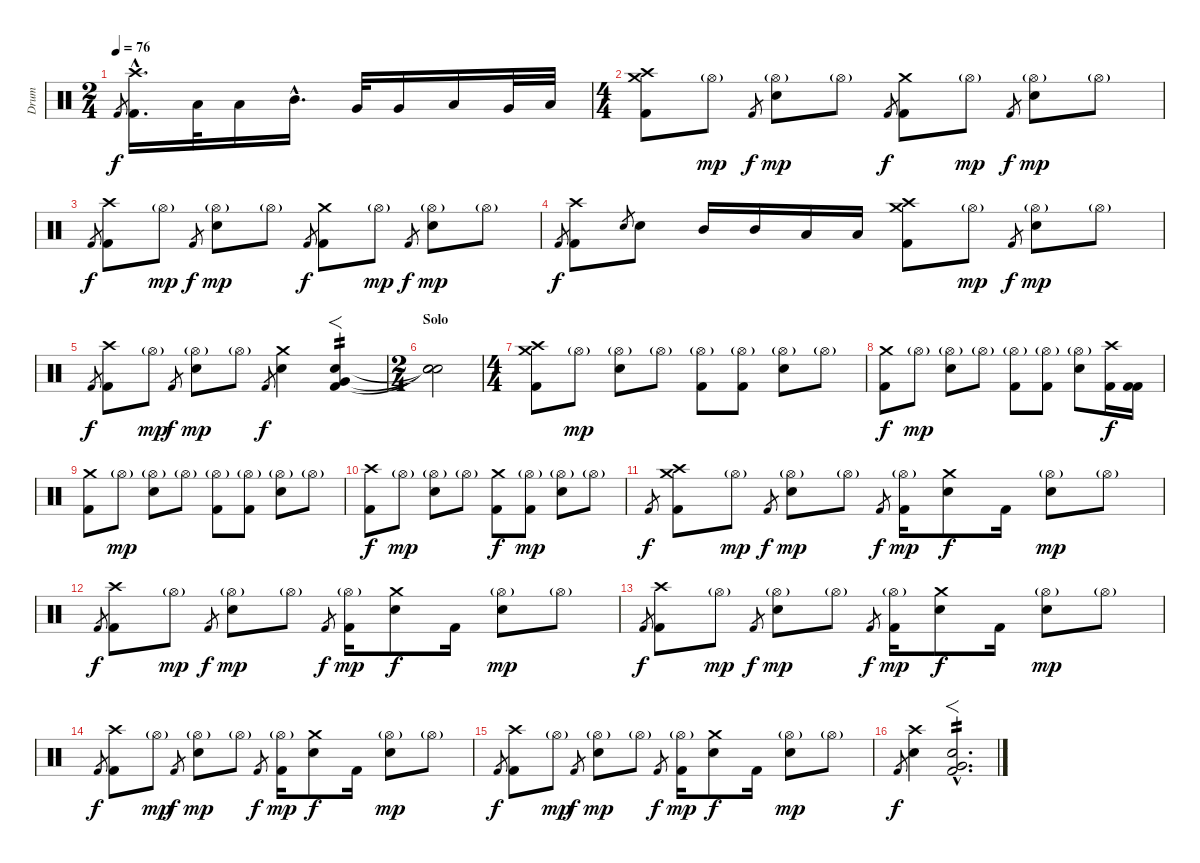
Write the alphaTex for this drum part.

\track ("Drum" "Drum") {instrument percussion}
\staff {score}
\articulation defaults
\ts (2 4)
\tempo 76
\clef neutral
\ks c "Kick (hit) 2".8{gr dy f}
("Kick (hit) 2"{hac} "Crash high (hit)"{hac}).16{d} "Low Tom (hit)".32 "Low Tom (hit)".16 "Mid Tom (hit)"{hac}.16{d} "Very Low Tom (hit)".32 "Very Low Tom (hit)".16 "Low Tom (hit)".16 "Very Low Tom (hit)".32 "Low Floor Tom (hit)".32 |
\ts (4 4)
("Kick (hit) 2" "Crash medium (hit)" "Crash high (hit)").8 "Hi-Hat (open)"{g}.8{dy mp} "Kick (hit) 2".8{gr dy f} ("Hi-Hat (open)"{g} "Electric Snare (hit)").8{dy mp} "Hi-Hat (open)"{g}.8 "Kick (hit) 2".8{gr dy f} ("Kick (hit) 2" "Crash medium (hit)").8 "Hi-Hat (open)"{g}.8{dy mp} "Kick (hit) 2".8{gr dy f} ("Hi-Hat (open)"{g} "Electric Snare (hit)").8{dy mp} "Hi-Hat (open)"{g}.8 |
"Kick (hit) 2".8{gr dy f} ("Kick (hit) 2" "Crash high (hit)").8 "Hi-Hat (open)"{g}.8{dy mp} "Kick (hit) 2".8{gr dy f} ("Hi-Hat (open)"{g} "Electric Snare (hit)").8{dy mp} "Hi-Hat (open)"{g}.8 "Kick (hit) 2".8{gr dy f} ("Kick (hit) 2" "Crash medium (hit)").8 "Hi-Hat (open)"{g}.8{dy mp} "Kick (hit) 2".8{gr dy f} ("Hi-Hat (open)"{g} "Electric Snare (hit)").8{dy mp} "Hi-Hat (open)"{g}.8 |
"Kick (hit) 2".8{gr dy f} ("Kick (hit) 2" "Crash high (hit)").8 "Electric Snare (hit)".8{gr} "Electric Snare (hit)".8 "Mid Tom (hit)".16 "Mid Tom (hit)".16 "Low Tom (hit)".16 "Low Tom (hit)".16 ("Kick (hit) 2" "Crash medium (hit)" "Crash high (hit)").8 "Hi-Hat (open)"{g}.8{dy mp} "Kick (hit) 2".8{gr dy f} ("Hi-Hat (open)"{g} "Electric Snare (hit)").8{dy mp} "Hi-Hat (open)"{g}.8 |
"Kick (hit) 2".8{gr dy f} ("Kick (hit) 2" "Crash high (hit)").8 "Hi-Hat (open)"{g}.8{dy mp} "Kick (hit) 2".8{gr dy f} ("Hi-Hat (open)"{g} "Electric Snare (hit)").8{dy mp} "Hi-Hat (open)"{g}.8 "Kick (hit) 2".8{gr dy f} ("Electric Snare (hit)" "Crash medium (hit)").4 ("Very Low Tom (hit)" "Electric Snare (hit)" "Kick (hit) 2").4{f tp 2} |
\ts (2 4)
\section ("" "Solo")
("Snare (hit)"{t} "Snare (hit)"{t} "Snare (hit)"{t}).2 |
\ts (4 4)
("Kick (hit) 2" "Crash high (hit)" "Crash medium (hit)").8 "Hi-Hat (open)"{g}.8{dy mp} ("Hi-Hat (open)"{g} "Electric Snare (hit)").8 "Hi-Hat (open)"{g}.8 ("Hi-Hat (open)"{g} "Kick (hit) 2").8 ("Hi-Hat (open)"{g} "Kick (hit) 2").8 ("Hi-Hat (open)"{g} "Electric Snare (hit)").8 "Hi-Hat (open)"{g}.8 |
("Kick (hit) 2" "Crash medium (hit)").8{dy f} "Hi-Hat (open)"{g}.8{dy mp} ("Hi-Hat (open)"{g} "Electric Snare (hit)").8 "Hi-Hat (open)"{g}.8 ("Hi-Hat (open)"{g} "Kick (hit) 2").8 ("Hi-Hat (open)"{g} "Kick (hit) 2").8 ("Hi-Hat (open)"{g} "Electric Snare (hit)").8 ("Kick (hit) 2" "Crash high (hit)").16{dy f} ("Kick (hit) 2" "Kick (hit) 2").16 |
("Kick (hit) 2" "Crash medium (hit)").8 "Hi-Hat (open)"{g}.8{dy mp} ("Hi-Hat (open)"{g} "Electric Snare (hit)").8 "Hi-Hat (open)"{g}.8 ("Hi-Hat (open)"{g} "Kick (hit) 2").8 ("Hi-Hat (open)"{g} "Kick (hit) 2").8 ("Hi-Hat (open)"{g} "Electric Snare (hit)").8 "Hi-Hat (open)"{g}.8 |
("Kick (hit) 2" "Crash high (hit)").8{dy f} "Hi-Hat (open)"{g}.8{dy mp} ("Hi-Hat (open)"{g} "Electric Snare (hit)").8 "Hi-Hat (open)"{g}.8 ("Kick (hit) 2" "Crash medium (hit)").8{dy f} ("Hi-Hat (open)"{g} "Kick (hit) 2").8{dy mp} ("Hi-Hat (open)"{g} "Electric Snare (hit)").8 "Hi-Hat (open)"{g}.8 |
"Kick (hit) 2".8{gr dy f} ("Kick (hit) 2" "Crash medium (hit)" "Crash high (hit)").8 "Hi-Hat (open)"{g}.8{dy mp} "Kick (hit) 2".8{gr dy f} ("Hi-Hat (open)"{g} "Electric Snare (hit)").8{dy mp} "Hi-Hat (open)"{g}.8 "Kick (hit) 2".8{gr dy f} ("Hi-Hat (open)"{g} "Kick (hit) 2").16{dy mp} ("Electric Snare (hit)" "Crash medium (hit)").8{dy f} "Kick (hit) 2".16 ("Hi-Hat (open)"{g} "Electric Snare (hit)").8{dy mp} "Hi-Hat (open)"{g}.8 |
"Kick (hit) 2".8{gr dy f} ("Kick (hit) 2" "Crash high (hit)").8 "Hi-Hat (open)"{g}.8{dy mp} "Kick (hit) 2".8{gr dy f} ("Hi-Hat (open)"{g} "Electric Snare (hit)").8{dy mp} "Hi-Hat (open)"{g}.8 "Kick (hit) 2".8{gr dy f} ("Hi-Hat (open)"{g} "Kick (hit) 2").16{dy mp} ("Electric Snare (hit)" "Crash medium (hit)").8{dy f} "Kick (hit) 2".16 ("Hi-Hat (open)"{g} "Electric Snare (hit)").8{dy mp} "Hi-Hat (open)"{g}.8 |
"Kick (hit) 2".8{gr dy f} ("Kick (hit) 2" "Crash high (hit)").8 "Hi-Hat (open)"{g}.8{dy mp} "Kick (hit) 2".8{gr dy f} ("Hi-Hat (open)"{g} "Electric Snare (hit)").8{dy mp} "Hi-Hat (open)"{g}.8 "Kick (hit) 2".8{gr dy f} ("Hi-Hat (open)"{g} "Kick (hit) 2").16{dy mp} ("Electric Snare (hit)" "Crash medium (hit)").8{dy f} "Kick (hit) 2".16 ("Hi-Hat (open)"{g} "Electric Snare (hit)").8{dy mp} "Hi-Hat (open)"{g}.8 |
"Kick (hit) 2".8{gr dy f} ("Kick (hit) 2" "Crash high (hit)").8 "Hi-Hat (open)"{g}.8{dy mp} "Kick (hit) 2".8{gr dy f} ("Hi-Hat (open)"{g} "Electric Snare (hit)").8{dy mp} "Hi-Hat (open)"{g}.8 "Kick (hit) 2".8{gr dy f} ("Hi-Hat (open)"{g} "Kick (hit) 2").16{dy mp} ("Electric Snare (hit)" "Crash medium (hit)").8{dy f} "Kick (hit) 2".16 ("Hi-Hat (open)"{g} "Electric Snare (hit)").8{dy mp} "Hi-Hat (open)"{g}.8 |
"Kick (hit) 2".8{gr dy f} ("Kick (hit) 2" "Crash high (hit)").8 "Hi-Hat (open)"{g}.8{dy mp} "Kick (hit) 2".8{gr dy f} ("Hi-Hat (open)"{g} "Electric Snare (hit)").8{dy mp} "Hi-Hat (open)"{g}.8 "Kick (hit) 2".8{gr dy f} ("Hi-Hat (open)"{g} "Kick (hit) 2").16{dy mp} ("Electric Snare (hit)" "Crash medium (hit)").8{dy f} "Kick (hit) 2".16 ("Hi-Hat (open)"{g} "Electric Snare (hit)").8{dy mp} "Hi-Hat (open)"{g}.8 |
"Kick (hit) 2".8{gr dy f} ("Electric Snare (hit)" "Crash high (hit)").4 ("Very Low Tom (hit)"{hac} "Electric Snare (hit)"{hac} "Kick (hit) 2"{hac}).2{f d tp 2}
